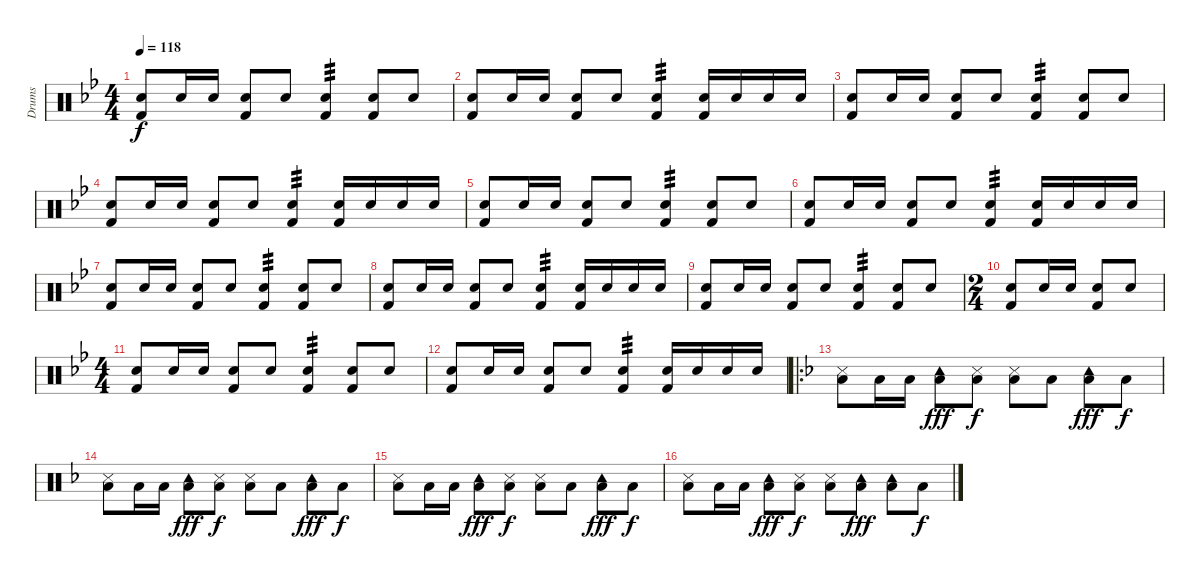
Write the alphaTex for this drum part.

\track ("Drums" "Drums") {instrument percussion}
\staff {score}
\articulation defaults
\ts (4 4)
\tempo 118
\clef neutral
\ks gminor
("Kick (hit) 2" "Snare (hit) 2").8{dy f volume 0} "Snare (hit) 2".16{volume 8} "Snare (hit) 2".16 ("Kick (hit) 2" "Snare (hit) 2").8 "Snare (hit) 2".8 ("Kick (hit) 2" "Snare (hit) 2").4{tp 3} ("Kick (hit) 2" "Snare (hit) 2").8 "Snare (hit) 2".8 |
("Kick (hit) 2" "Snare (hit) 2").8 "Snare (hit) 2".16 "Snare (hit) 2".16 ("Kick (hit) 2" "Snare (hit) 2").8 "Snare (hit) 2".8 ("Kick (hit) 2" "Snare (hit) 2").4{tp 3} ("Kick (hit) 2" "Snare (hit) 2").16 "Snare (hit) 2".16 "Snare (hit) 2".16 "Snare (hit) 2".16 |
("Kick (hit) 2" "Snare (hit) 2").8 "Snare (hit) 2".16 "Snare (hit) 2".16 ("Kick (hit) 2" "Snare (hit) 2").8 "Snare (hit) 2".8 ("Kick (hit) 2" "Snare (hit) 2").4{tp 3} ("Kick (hit) 2" "Snare (hit) 2").8 "Snare (hit) 2".8 |
("Kick (hit) 2" "Snare (hit) 2").8 "Snare (hit) 2".16 "Snare (hit) 2".16 ("Kick (hit) 2" "Snare (hit) 2").8 "Snare (hit) 2".8 ("Kick (hit) 2" "Snare (hit) 2").4{tp 3} ("Kick (hit) 2" "Snare (hit) 2").16 "Snare (hit) 2".16 "Snare (hit) 2".16 "Snare (hit) 2".16 |
("Kick (hit) 2" "Snare (hit) 2").8 "Snare (hit) 2".16 "Snare (hit) 2".16 ("Kick (hit) 2" "Snare (hit) 2").8 "Snare (hit) 2".8 ("Kick (hit) 2" "Snare (hit) 2").4{tp 3} ("Kick (hit) 2" "Snare (hit) 2").8 "Snare (hit) 2".8 |
("Kick (hit) 2" "Snare (hit) 2").8 "Snare (hit) 2".16 "Snare (hit) 2".16 ("Kick (hit) 2" "Snare (hit) 2").8 "Snare (hit) 2".8 ("Kick (hit) 2" "Snare (hit) 2").4{tp 3} ("Kick (hit) 2" "Snare (hit) 2").16 "Snare (hit) 2".16 "Snare (hit) 2".16 "Snare (hit) 2".16 |
("Kick (hit) 2" "Snare (hit) 2").8 "Snare (hit) 2".16 "Snare (hit) 2".16 ("Kick (hit) 2" "Snare (hit) 2").8 "Snare (hit) 2".8 ("Kick (hit) 2" "Snare (hit) 2").4{tp 3} ("Kick (hit) 2" "Snare (hit) 2").8 "Snare (hit) 2".8 |
("Kick (hit) 2" "Snare (hit) 2").8 "Snare (hit) 2".16 "Snare (hit) 2".16 ("Kick (hit) 2" "Snare (hit) 2").8 "Snare (hit) 2".8 ("Kick (hit) 2" "Snare (hit) 2").4{tp 3} ("Kick (hit) 2" "Snare (hit) 2").16 "Snare (hit) 2".16 "Snare (hit) 2".16 "Snare (hit) 2".16 |
("Kick (hit) 2" "Snare (hit) 2").8 "Snare (hit) 2".16 "Snare (hit) 2".16 ("Kick (hit) 2" "Snare (hit) 2").8 "Snare (hit) 2".8 ("Kick (hit) 2" "Snare (hit) 2").4{tp 3} ("Kick (hit) 2" "Snare (hit) 2").8 "Snare (hit) 2".8 |
\ts (2 4)
("Kick (hit) 2" "Snare (hit) 2").8 "Snare (hit) 2".16 "Snare (hit) 2".16 ("Kick (hit) 2" "Snare (hit) 2").8 "Snare (hit) 2".8 |
\ts (4 4)
("Kick (hit) 2" "Snare (hit) 2").8 "Snare (hit) 2".16 "Snare (hit) 2".16 ("Kick (hit) 2" "Snare (hit) 2").8 "Snare (hit) 2".8 ("Kick (hit) 2" "Snare (hit) 2").4{tp 3} ("Kick (hit) 2" "Snare (hit) 2").8 "Snare (hit) 2".8 |
("Kick (hit) 2" "Snare (hit) 2").8 "Snare (hit) 2".16 "Snare (hit) 2".16 ("Kick (hit) 2" "Snare (hit) 2").8 "Snare (hit) 2".8 ("Kick (hit) 2" "Snare (hit) 2").4{tp 3} ("Kick (hit) 2" "Snare (hit) 2").16 "Snare (hit) 2".16 "Snare (hit) 2".16 "Snare (hit) 2".16 |
\ro
\ks dminor
("Metronome (hit)" "Low Tom (hit)").8 "Low Tom (hit)".16 "Low Tom (hit)".16 ("Low Tom (hit)" "Tambourine (hit)").8{dy fff} ("Metronome (hit)" "Low Tom (hit)").8{dy f} ("Metronome (hit)" "Low Tom (hit)").8 "Low Tom (hit)".8 ("Low Tom (hit)" "Tambourine (hit)").8{dy fff} "Low Tom (hit)".8{dy f} |
("Metronome (hit)" "Low Tom (hit)").8 "Low Tom (hit)".16 "Low Tom (hit)".16 ("Low Tom (hit)" "Tambourine (hit)").8{dy fff} ("Metronome (hit)" "Low Tom (hit)").8{dy f} ("Metronome (hit)" "Low Tom (hit)").8 "Low Tom (hit)".8 ("Low Tom (hit)" "Tambourine (hit)").8{dy fff} "Low Tom (hit)".8{dy f} |
("Metronome (hit)" "Low Tom (hit)").8 "Low Tom (hit)".16 "Low Tom (hit)".16 ("Low Tom (hit)" "Tambourine (hit)").8{dy fff} ("Metronome (hit)" "Low Tom (hit)").8{dy f} ("Metronome (hit)" "Low Tom (hit)").8 "Low Tom (hit)".8 ("Low Tom (hit)" "Tambourine (hit)").8{dy fff} "Low Tom (hit)".8{dy f} |
("Metronome (hit)" "Low Tom (hit)").8 "Low Tom (hit)".16 "Low Tom (hit)".16 ("Low Tom (hit)" "Tambourine (hit)").8{dy fff} ("Metronome (hit)" "Low Tom (hit)").8{dy f} ("Metronome (hit)" "Low Tom (hit)").8 ("Low Tom (hit)" "Tambourine (hit)").8{dy fff} ("Low Tom (hit)" "Tambourine (hit)").8 "Low Tom (hit)".8{dy f}
